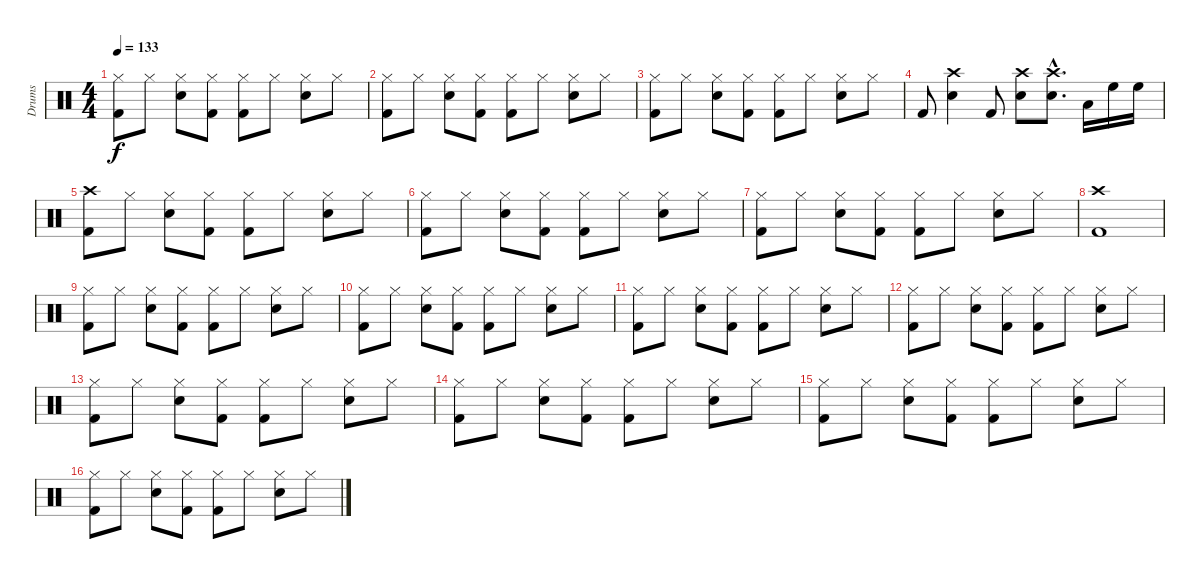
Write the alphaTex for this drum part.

\track ("Drums" "Drums") {instrument percussion}
\staff {score}
\articulation defaults
\ts (4 4)
\tempo 133
\clef neutral
\ks c
("Kick (hit) 2" "Hi-Hat (closed)").8{dy f} "Hi-Hat (closed)".8 ("Snare (hit) 2" "Hi-Hat (closed)").8 ("Kick (hit) 2" "Hi-Hat (closed)").8 ("Kick (hit) 2" "Hi-Hat (closed)").8 "Hi-Hat (closed)".8 ("Snare (hit) 2" "Hi-Hat (closed)").8 "Hi-Hat (closed)".8 |
("Kick (hit) 2" "Hi-Hat (closed)").8 "Hi-Hat (closed)".8 ("Snare (hit) 2" "Hi-Hat (closed)").8 ("Kick (hit) 2" "Hi-Hat (closed)").8 ("Kick (hit) 2" "Hi-Hat (closed)").8 "Hi-Hat (closed)".8 ("Snare (hit) 2" "Hi-Hat (closed)").8 "Hi-Hat (closed)".8 |
("Kick (hit) 2" "Hi-Hat (closed)").8 "Hi-Hat (closed)".8 ("Snare (hit) 2" "Hi-Hat (closed)").8 ("Kick (hit) 2" "Hi-Hat (closed)").8 ("Kick (hit) 2" "Hi-Hat (closed)").8 "Hi-Hat (closed)".8 ("Snare (hit) 2" "Hi-Hat (closed)").8 "Hi-Hat (closed)".8 |
"Kick (hit) 2".8 ("Snare (hit) 2" "Crash high (hit)").4 "Kick (hit) 2".8 ("Snare (hit) 2" "Crash high (hit)").8 ("Snare (hit) 2"{hac} "Crash high (hit)"{hac}).8{d} "Low Tom (hit)".16 "High Floor Tom (hit)".16 "High Floor Tom (hit)".16 |
("Kick (hit) 2" "Crash high (hit)").8 "Hi-Hat (closed)".8 ("Snare (hit) 2" "Hi-Hat (closed)").8 ("Kick (hit) 2" "Hi-Hat (closed)").8 ("Kick (hit) 2" "Hi-Hat (closed)").8 "Hi-Hat (closed)".8 ("Snare (hit) 2" "Hi-Hat (closed)").8 "Hi-Hat (closed)".8 |
("Kick (hit) 2" "Hi-Hat (closed)").8 "Hi-Hat (closed)".8 ("Snare (hit) 2" "Hi-Hat (closed)").8 ("Kick (hit) 2" "Hi-Hat (closed)").8 ("Kick (hit) 2" "Hi-Hat (closed)").8 "Hi-Hat (closed)".8 ("Snare (hit) 2" "Hi-Hat (closed)").8 "Hi-Hat (closed)".8 |
("Kick (hit) 2" "Hi-Hat (closed)").8 "Hi-Hat (closed)".8 ("Snare (hit) 2" "Hi-Hat (closed)").8 ("Kick (hit) 2" "Hi-Hat (closed)").8 ("Kick (hit) 2" "Hi-Hat (closed)").8 "Hi-Hat (closed)".8 ("Snare (hit) 2" "Hi-Hat (closed)").8 "Hi-Hat (closed)".8 |
("Kick (hit) 2" "Crash high (hit)").1 |
("Kick (hit) 2" "Hi-Hat (closed)").8 "Hi-Hat (closed)".8 ("Snare (hit) 2" "Hi-Hat (closed)").8 ("Kick (hit) 2" "Hi-Hat (closed)").8 ("Kick (hit) 2" "Hi-Hat (closed)").8 "Hi-Hat (closed)".8 ("Snare (hit) 2" "Hi-Hat (closed)").8 "Hi-Hat (closed)".8 |
("Kick (hit) 2" "Hi-Hat (closed)").8 "Hi-Hat (closed)".8 ("Snare (hit) 2" "Hi-Hat (closed)").8 ("Kick (hit) 2" "Hi-Hat (closed)").8 ("Kick (hit) 2" "Hi-Hat (closed)").8 "Hi-Hat (closed)".8 ("Snare (hit) 2" "Hi-Hat (closed)").8 "Hi-Hat (closed)".8 |
("Kick (hit) 2" "Hi-Hat (closed)").8 "Hi-Hat (closed)".8 ("Snare (hit) 2" "Hi-Hat (closed)").8 ("Kick (hit) 2" "Hi-Hat (closed)").8 ("Kick (hit) 2" "Hi-Hat (closed)").8 "Hi-Hat (closed)".8 ("Snare (hit) 2" "Hi-Hat (closed)").8 "Hi-Hat (closed)".8 |
("Kick (hit) 2" "Hi-Hat (closed)").8 "Hi-Hat (closed)".8 ("Snare (hit) 2" "Hi-Hat (closed)").8 ("Kick (hit) 2" "Hi-Hat (closed)").8 ("Kick (hit) 2" "Hi-Hat (closed)").8 "Hi-Hat (closed)".8 ("Snare (hit) 2" "Hi-Hat (closed)").8 "Hi-Hat (closed)".8 |
("Kick (hit) 2" "Hi-Hat (closed)").8 "Hi-Hat (closed)".8 ("Snare (hit) 2" "Hi-Hat (closed)").8 ("Kick (hit) 2" "Hi-Hat (closed)").8 ("Kick (hit) 2" "Hi-Hat (closed)").8 "Hi-Hat (closed)".8 ("Snare (hit) 2" "Hi-Hat (closed)").8 "Hi-Hat (closed)".8 |
("Kick (hit) 2" "Hi-Hat (closed)").8 "Hi-Hat (closed)".8 ("Snare (hit) 2" "Hi-Hat (closed)").8 ("Kick (hit) 2" "Hi-Hat (closed)").8 ("Kick (hit) 2" "Hi-Hat (closed)").8 "Hi-Hat (closed)".8 ("Snare (hit) 2" "Hi-Hat (closed)").8 "Hi-Hat (closed)".8 |
("Kick (hit) 2" "Hi-Hat (closed)").8 "Hi-Hat (closed)".8 ("Snare (hit) 2" "Hi-Hat (closed)").8 ("Kick (hit) 2" "Hi-Hat (closed)").8 ("Kick (hit) 2" "Hi-Hat (closed)").8 "Hi-Hat (closed)".8 ("Snare (hit) 2" "Hi-Hat (closed)").8 "Hi-Hat (closed)".8 |
("Kick (hit) 2" "Hi-Hat (closed)").8 "Hi-Hat (closed)".8 ("Snare (hit) 2" "Hi-Hat (closed)").8 ("Kick (hit) 2" "Hi-Hat (closed)").8 ("Kick (hit) 2" "Hi-Hat (closed)").8 "Hi-Hat (closed)".8 ("Snare (hit) 2" "Hi-Hat (closed)").8 "Hi-Hat (closed)".8
